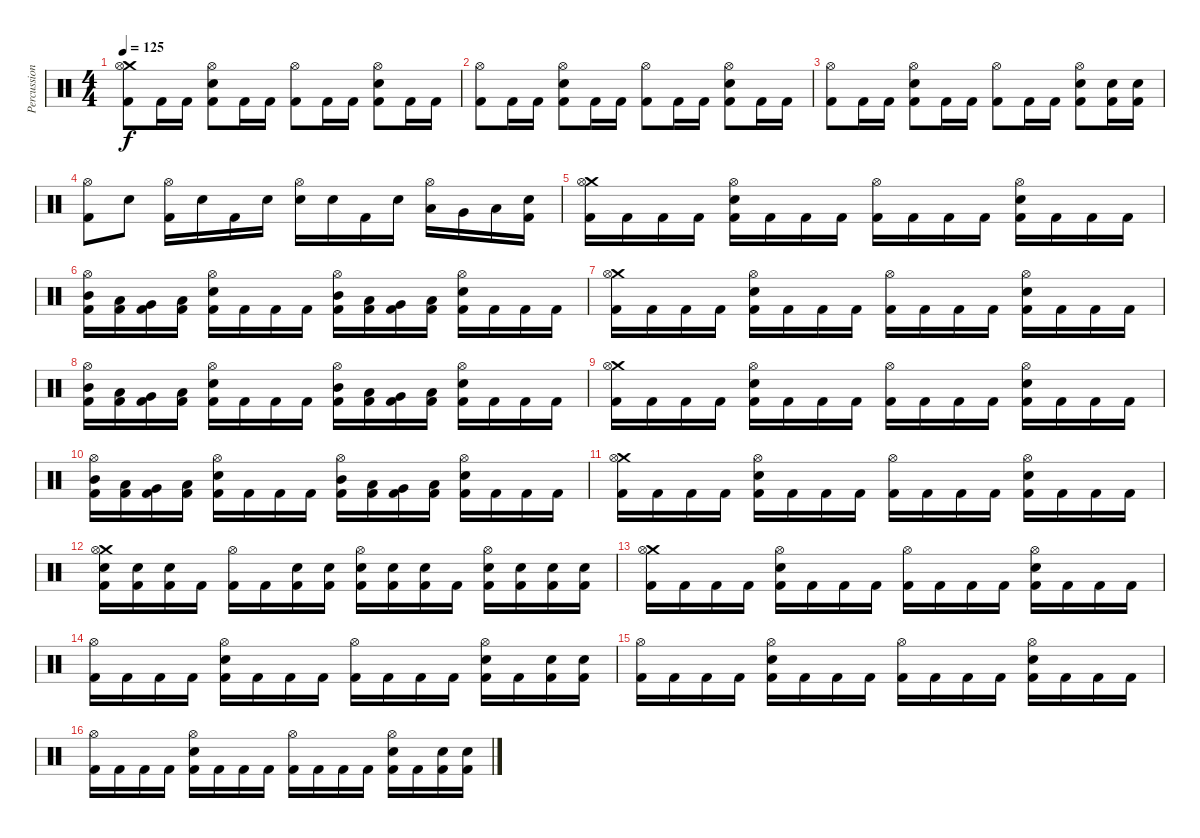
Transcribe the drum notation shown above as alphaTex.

\track ("Percussion" "Percussion") {instrument percussion}
\staff {score}
\articulation defaults
\ts (4 4)
\tempo 125
\clef neutral
\ks c
("Crash medium (hit)" "Hi-Hat (open)" "Kick (hit) 2").8{dy f} "Kick (hit) 2".16 "Kick (hit) 2".16 ("Hi-Hat (open)" "Electric Snare (hit)" "Kick (hit) 2").8 "Kick (hit) 2".16 "Kick (hit) 2".16 ("Hi-Hat (open)" "Kick (hit) 2").8 "Kick (hit) 2".16 "Kick (hit) 2".16 ("Hi-Hat (open)" "Electric Snare (hit)" "Kick (hit) 2").8 "Kick (hit) 2".16 "Kick (hit) 2".16 |
("Hi-Hat (open)" "Kick (hit) 2").8 "Kick (hit) 2".16 "Kick (hit) 2".16 ("Hi-Hat (open)" "Electric Snare (hit)" "Kick (hit) 2").8 "Kick (hit) 2".16 "Kick (hit) 2".16 ("Hi-Hat (open)" "Kick (hit) 2").8 "Kick (hit) 2".16 "Kick (hit) 2".16 ("Hi-Hat (open)" "Electric Snare (hit)" "Kick (hit) 2").8 "Kick (hit) 2".16 "Kick (hit) 2".16 |
("Hi-Hat (open)" "Kick (hit) 2").8 "Kick (hit) 2".16 "Kick (hit) 2".16 ("Hi-Hat (open)" "Electric Snare (hit)" "Kick (hit) 2").8 "Kick (hit) 2".16 "Kick (hit) 2".16 ("Hi-Hat (open)" "Kick (hit) 2").8 "Kick (hit) 2".16 "Kick (hit) 2".16 ("Hi-Hat (open)" "Electric Snare (hit)" "Kick (hit) 2").8 ("Electric Snare (hit)" "Kick (hit) 2").16 ("Electric Snare (hit)" "Kick (hit) 2").16 |
("Hi-Hat (open)" "Kick (hit) 2").8 "Electric Snare (hit)".8 ("Hi-Hat (open)" "Kick (hit) 2").16 "Electric Snare (hit)".16 "Kick (hit) 2".16 "Electric Snare (hit)".16 ("Hi-Hat (open)" "Electric Snare (hit)").16 "Electric Snare (hit)".16 "Kick (hit) 2".16 "Electric Snare (hit)".16 ("Hi-Hat (open)" "Low Tom (hit)").16 "Very Low Tom (hit)".16 "Low Floor Tom (hit)".16 ("Electric Snare (hit)" "Kick (hit) 2").16 |
("Crash medium (hit)" "Hi-Hat (open)" "Kick (hit) 2").16 "Kick (hit) 2".16 "Kick (hit) 2".16 "Kick (hit) 2".16 ("Hi-Hat (open)" "Electric Snare (hit)" "Kick (hit) 2").16 "Kick (hit) 2".16 "Kick (hit) 2".16 "Kick (hit) 2".16 ("Hi-Hat (open)" "Kick (hit) 2").16 "Kick (hit) 2".16 "Kick (hit) 2".16 "Kick (hit) 2".16 ("Hi-Hat (open)" "Electric Snare (hit)" "Kick (hit) 2").16 "Kick (hit) 2".16 "Kick (hit) 2".16 "Kick (hit) 2".16 |
("Hi-Hat (open)" "Mid Tom (hit)" "Kick (hit) 2").16 ("Low Tom (hit)" "Kick (hit) 2").16 ("Very Low Tom (hit)" "Kick (hit) 2").16 ("Low Floor Tom (hit)" "Kick (hit) 2").16 ("Hi-Hat (open)" "Electric Snare (hit)" "Kick (hit) 2").16 "Kick (hit) 2".16 "Kick (hit) 2".16 "Kick (hit) 2".16 ("Hi-Hat (open)" "Mid Tom (hit)" "Kick (hit) 2").16 ("Low Tom (hit)" "Kick (hit) 2").16 ("Very Low Tom (hit)" "Kick (hit) 2").16 ("Low Floor Tom (hit)" "Kick (hit) 2").16 ("Hi-Hat (open)" "Electric Snare (hit)" "Kick (hit) 2").16 "Kick (hit) 2".16 "Kick (hit) 2".16 "Kick (hit) 2".16 |
("Crash medium (hit)" "Hi-Hat (open)" "Kick (hit) 2").16 "Kick (hit) 2".16 "Kick (hit) 2".16 "Kick (hit) 2".16 ("Hi-Hat (open)" "Electric Snare (hit)" "Kick (hit) 2").16 "Kick (hit) 2".16 "Kick (hit) 2".16 "Kick (hit) 2".16 ("Hi-Hat (open)" "Kick (hit) 2").16 "Kick (hit) 2".16 "Kick (hit) 2".16 "Kick (hit) 2".16 ("Hi-Hat (open)" "Electric Snare (hit)" "Kick (hit) 2").16 "Kick (hit) 2".16 "Kick (hit) 2".16 "Kick (hit) 2".16 |
("Hi-Hat (open)" "Mid Tom (hit)" "Kick (hit) 2").16 ("Low Tom (hit)" "Kick (hit) 2").16 ("Very Low Tom (hit)" "Kick (hit) 2").16 ("Low Floor Tom (hit)" "Kick (hit) 2").16 ("Hi-Hat (open)" "Electric Snare (hit)" "Kick (hit) 2").16 "Kick (hit) 2".16 "Kick (hit) 2".16 "Kick (hit) 2".16 ("Hi-Hat (open)" "Mid Tom (hit)" "Kick (hit) 2").16 ("Low Tom (hit)" "Kick (hit) 2").16 ("Very Low Tom (hit)" "Kick (hit) 2").16 ("Low Floor Tom (hit)" "Kick (hit) 2").16 ("Hi-Hat (open)" "Electric Snare (hit)" "Kick (hit) 2").16 "Kick (hit) 2".16 "Kick (hit) 2".16 "Kick (hit) 2".16 |
("Crash medium (hit)" "Hi-Hat (open)" "Kick (hit) 2").16 "Kick (hit) 2".16 "Kick (hit) 2".16 "Kick (hit) 2".16 ("Hi-Hat (open)" "Electric Snare (hit)" "Kick (hit) 2").16 "Kick (hit) 2".16 "Kick (hit) 2".16 "Kick (hit) 2".16 ("Hi-Hat (open)" "Kick (hit) 2").16 "Kick (hit) 2".16 "Kick (hit) 2".16 "Kick (hit) 2".16 ("Hi-Hat (open)" "Electric Snare (hit)" "Kick (hit) 2").16 "Kick (hit) 2".16 "Kick (hit) 2".16 "Kick (hit) 2".16 |
("Hi-Hat (open)" "Mid Tom (hit)" "Kick (hit) 2").16 ("Low Tom (hit)" "Kick (hit) 2").16 ("Very Low Tom (hit)" "Kick (hit) 2").16 ("Low Floor Tom (hit)" "Kick (hit) 2").16 ("Hi-Hat (open)" "Electric Snare (hit)" "Kick (hit) 2").16 "Kick (hit) 2".16 "Kick (hit) 2".16 "Kick (hit) 2".16 ("Hi-Hat (open)" "Mid Tom (hit)" "Kick (hit) 2").16 ("Low Tom (hit)" "Kick (hit) 2").16 ("Very Low Tom (hit)" "Kick (hit) 2").16 ("Low Floor Tom (hit)" "Kick (hit) 2").16 ("Hi-Hat (open)" "Electric Snare (hit)" "Kick (hit) 2").16 "Kick (hit) 2".16 "Kick (hit) 2".16 "Kick (hit) 2".16 |
("Crash medium (hit)" "Hi-Hat (open)" "Kick (hit) 2").16 "Kick (hit) 2".16 "Kick (hit) 2".16 "Kick (hit) 2".16 ("Hi-Hat (open)" "Electric Snare (hit)" "Kick (hit) 2").16 "Kick (hit) 2".16 "Kick (hit) 2".16 "Kick (hit) 2".16 ("Hi-Hat (open)" "Kick (hit) 2").16 "Kick (hit) 2".16 "Kick (hit) 2".16 "Kick (hit) 2".16 ("Hi-Hat (open)" "Electric Snare (hit)" "Kick (hit) 2").16 "Kick (hit) 2".16 "Kick (hit) 2".16 "Kick (hit) 2".16 |
("Crash medium (hit)" "Hi-Hat (open)" "Electric Snare (hit)" "Kick (hit) 2").16 ("Electric Snare (hit)" "Kick (hit) 2").16 ("Electric Snare (hit)" "Kick (hit) 2").16 "Kick (hit) 2".16 ("Hi-Hat (open)" "Kick (hit) 2").16 "Kick (hit) 2".16 ("Electric Snare (hit)" "Kick (hit) 2").16 ("Electric Snare (hit)" "Kick (hit) 2").16 ("Hi-Hat (open)" "Electric Snare (hit)" "Kick (hit) 2").16 ("Electric Snare (hit)" "Kick (hit) 2").16 ("Electric Snare (hit)" "Kick (hit) 2").16 "Kick (hit) 2".16 ("Hi-Hat (open)" "Electric Snare (hit)" "Kick (hit) 2").16 ("Electric Snare (hit)" "Kick (hit) 2").16 ("Electric Snare (hit)" "Kick (hit) 2").16 ("Electric Snare (hit)" "Kick (hit) 2").16 |
("Crash medium (hit)" "Hi-Hat (open)" "Kick (hit) 2").16 "Kick (hit) 2".16 "Kick (hit) 2".16 "Kick (hit) 2".16 ("Hi-Hat (open)" "Electric Snare (hit)" "Kick (hit) 2").16 "Kick (hit) 2".16 "Kick (hit) 2".16 "Kick (hit) 2".16 ("Hi-Hat (open)" "Kick (hit) 2").16 "Kick (hit) 2".16 "Kick (hit) 2".16 "Kick (hit) 2".16 ("Hi-Hat (open)" "Electric Snare (hit)" "Kick (hit) 2").16 "Kick (hit) 2".16 "Kick (hit) 2".16 "Kick (hit) 2".16 |
("Hi-Hat (open)" "Kick (hit) 2").16 "Kick (hit) 2".16 "Kick (hit) 2".16 "Kick (hit) 2".16 ("Hi-Hat (open)" "Electric Snare (hit)" "Kick (hit) 2").16 "Kick (hit) 2".16 "Kick (hit) 2".16 "Kick (hit) 2".16 ("Hi-Hat (open)" "Kick (hit) 2").16 "Kick (hit) 2".16 "Kick (hit) 2".16 "Kick (hit) 2".16 ("Hi-Hat (open)" "Electric Snare (hit)" "Kick (hit) 2").16 "Kick (hit) 2".16 ("Electric Snare (hit)" "Kick (hit) 2").16 ("Electric Snare (hit)" "Kick (hit) 2").16 |
("Hi-Hat (open)" "Kick (hit) 2").16 "Kick (hit) 2".16 "Kick (hit) 2".16 "Kick (hit) 2".16 ("Hi-Hat (open)" "Electric Snare (hit)" "Kick (hit) 2").16 "Kick (hit) 2".16 "Kick (hit) 2".16 "Kick (hit) 2".16 ("Hi-Hat (open)" "Kick (hit) 2").16 "Kick (hit) 2".16 "Kick (hit) 2".16 "Kick (hit) 2".16 ("Hi-Hat (open)" "Electric Snare (hit)" "Kick (hit) 2").16 "Kick (hit) 2".16 "Kick (hit) 2".16 "Kick (hit) 2".16 |
("Hi-Hat (open)" "Kick (hit) 2").16 "Kick (hit) 2".16 "Kick (hit) 2".16 "Kick (hit) 2".16 ("Hi-Hat (open)" "Electric Snare (hit)" "Kick (hit) 2").16 "Kick (hit) 2".16 "Kick (hit) 2".16 "Kick (hit) 2".16 ("Hi-Hat (open)" "Kick (hit) 2").16 "Kick (hit) 2".16 "Kick (hit) 2".16 "Kick (hit) 2".16 ("Hi-Hat (open)" "Electric Snare (hit)" "Kick (hit) 2").16 "Kick (hit) 2".16 ("Electric Snare (hit)" "Kick (hit) 2").16 ("Electric Snare (hit)" "Kick (hit) 2").16
